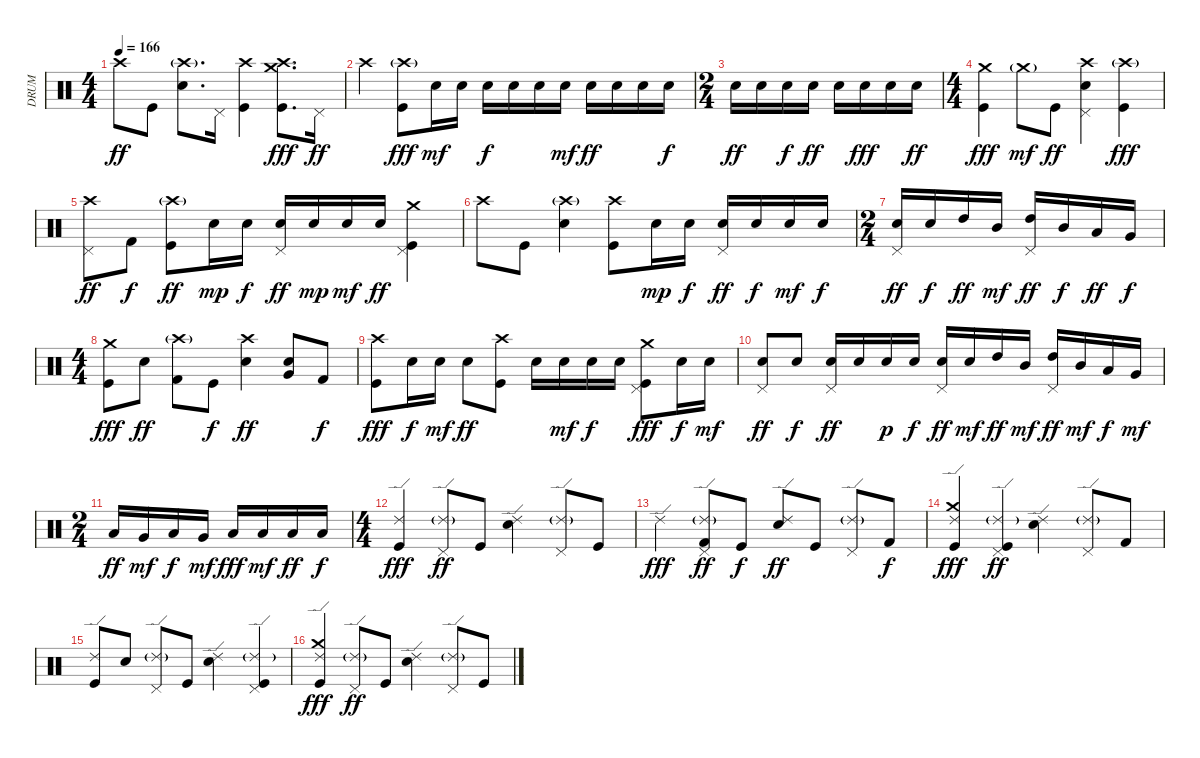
\track ("DRUM" "DRUM") {instrument percussion}
\staff {score}
\articulation defaults
\ts (4 4)
\tempo 166
\clef neutral
\ks c "Crash high (hit)".8{dy ff} "Kick (hit)".8
("Crash high (hit)"{g} "Electric Snare (hit)").8{d} "Pedal Hi-Hat (hit)".16 ("Crash high (hit)" "Kick (hit)").4 ("Crash high (hit)" "Crash medium (hit)" "Kick (hit)").8{d dy fff} "Pedal Hi-Hat (hit)".16{dy ff} |
"Crash high (hit)".4 ("Crash high (hit)"{g} "Kick (hit)").8{dy fff} "Snare (hit) 2".16{dy mf} "Electric Snare (hit)".16 "Snare (hit) 2".16{dy f} "Electric Snare (hit)".16 "Snare (hit) 2".16 "Electric Snare (hit)".16{dy mf} "Snare (hit) 2".16{dy ff} "Electric Snare (hit)".16 "Snare (hit) 2".16 "Electric Snare (hit)".16{dy f} |
\ts (2 4)
"Snare (hit) 2".16{dy ff} "Electric Snare (hit)".16 "Snare (hit) 2".16{dy f} "Electric Snare (hit)".16{dy ff} "Snare (hit) 2".16 "Electric Snare (hit)".16{dy fff} "Snare (hit) 2".16 "Electric Snare (hit)".16{dy ff} |
\ts (4 4)
("Crash medium (hit)" "Kick (hit)").4{dy fff} "Crash medium (hit)"{g}.8{dy mf} "Kick (hit)".8{dy ff} ("Crash high (hit)" "Pedal Hi-Hat (hit)" "Electric Snare (hit)").4 ("Crash high (hit)"{g} "Kick (hit)").4{dy fff} |
("Crash high (hit)" "Pedal Hi-Hat (hit)").8{dy ff} "Kick (hit) 2".8{dy f} ("Crash high (hit)"{g} "Kick (hit)").8{dy ff} "Snare (hit) 2".16{dy mp} "Electric Snare (hit)".16{dy f} ("Pedal Hi-Hat (hit)" "Snare (hit) 2").16{dy ff} "Electric Snare (hit)".16{dy mp} "Snare (hit) 2".16{dy mf} "Electric Snare (hit)".16{dy ff} ("Crash medium (hit)" "Pedal Hi-Hat (hit)" "Kick (hit)").4 |
"Crash high (hit)".8 "Kick (hit)".8 ("Crash high (hit)"{g} "Electric Snare (hit)").4 ("Crash high (hit)" "Kick (hit)").8 "Snare (hit) 2".16{dy mp} "Electric Snare (hit)".16{dy f} ("Pedal Hi-Hat (hit)" "Snare (hit) 2").16{dy ff} "Electric Snare (hit)".16{dy f} "Snare (hit) 2".16{dy mf} "Electric Snare (hit)".16{dy f} |
\ts (2 4)
("Pedal Hi-Hat (hit)" "Snare (hit) 2").16{dy ff} "Electric Snare (hit)".16{dy f} "High Tom (hit)".16{dy ff} "Mid Tom (hit)".16{dy mf} ("Pedal Hi-Hat (hit)" "High Tom (hit)").16{dy ff} "Mid Tom (hit)".16{dy f} "Low Tom (hit)".16{dy ff} "Very Low Tom (hit)".16{dy f} |
\ts (4 4)
("Crash medium (hit)" "Kick (hit)").8{dy fff} "Electric Snare (hit)".8{dy ff} ("Crash high (hit)"{g} "Kick (hit) 2").8 "Kick (hit)".8{dy f} ("Crash high (hit)" "Electric Snare (hit)").4{dy ff} ("Electric Snare (hit)" "Very Low Tom (hit)").8 "Kick (hit) 2".8{dy f} |
("Crash high (hit)" "Kick (hit)").8{dy fff} "Snare (hit) 2".16{dy f} "Electric Snare (hit)".16{dy mf} "Snare (hit) 2".8{dy ff} ("Crash high (hit)" "Kick (hit)").8 "Snare (hit) 2".16 "Electric Snare (hit)".16{dy mf} "Snare (hit) 2".16{dy f} "Electric Snare (hit)".16 ("Crash medium (hit)" "Pedal Hi-Hat (hit)" "Kick (hit)").8{dy fff} "Snare (hit) 2".16{dy f} "Electric Snare (hit)".16{dy mf} |
("Pedal Hi-Hat (hit)" "Snare (hit) 2").8{dy ff} "Electric Snare (hit)".8{dy f} ("Pedal Hi-Hat (hit)" "Snare (hit) 2").16{dy ff} "Electric Snare (hit)".16 "Snare (hit) 2".16{dy p} "Electric Snare (hit)".16{dy f} ("Pedal Hi-Hat (hit)" "Snare (hit) 2").16{dy ff} "Electric Snare (hit)".16{dy mf} "High Tom (hit)".16{dy ff} "Mid Tom (hit)".16{dy mf} ("Pedal Hi-Hat (hit)" "High Tom (hit)").16{dy ff} "Mid Tom (hit)".16{dy mf} "Low Tom (hit)".16{dy f} "Very Low Tom (hit)".16{dy mf} |
\ts (2 4)
"Low Tom (hit)".16{dy ff} "Very Low Tom (hit)".16{dy mf} "Low Tom (hit)".16{dy f} "Very Low Tom (hit)".16{dy mf} "Low Floor Tom (hit)".16{dy fff} "Low Floor Tom (hit)".16{dy mf} "Low Floor Tom (hit)".16{dy ff} "Low Floor Tom (hit)".16{dy f} |
\ts (4 4)
("Ride (edge) 2" "Kick (hit)").4{dy fff} ("Ride (edge) 2"{g} "Pedal Hi-Hat (hit)").8{dy ff} "Kick (hit)".8 ("Ride (edge) 2" "Electric Snare (hit)").4 ("Ride (edge) 2"{g} "Pedal Hi-Hat (hit)").8 "Kick (hit)".8 |
"Ride (edge) 2".4{dy fff} ("Ride (edge) 2"{g} "Pedal Hi-Hat (hit)" "Kick (hit) 2").8{dy ff} "Kick (hit)".8{dy f} ("Ride (edge) 2" "Electric Snare (hit)").8{dy ff} "Kick (hit)".8 ("Ride (edge) 2"{g} "Pedal Hi-Hat (hit)").8 "Kick (hit) 2".8{dy f} |
("Ride (edge) 2" "Crash medium (hit)" "Kick (hit)").4{dy fff} ("Ride (edge) 2"{g} "Pedal Hi-Hat (hit)" "Kick (hit)").4{dy ff} ("Ride (edge) 2" "Electric Snare (hit)").4 ("Ride (edge) 2"{g} "Pedal Hi-Hat (hit)").8 "Kick (hit) 2".8 |
("Ride (edge) 2" "Kick (hit)").8 "Electric Snare (hit)".8 ("Ride (edge) 2"{g} "Pedal Hi-Hat (hit)").8 "Kick (hit)".8 ("Ride (edge) 2" "Electric Snare (hit)").4 ("Ride (edge) 2"{g} "Pedal Hi-Hat (hit)" "Kick (hit)").4 |
("Ride (edge) 2" "Crash medium (hit)" "Kick (hit)").4{dy fff} ("Ride (edge) 2"{g} "Pedal Hi-Hat (hit)").8{dy ff} "Kick (hit)".8 ("Ride (edge) 2" "Electric Snare (hit)").4 ("Ride (edge) 2"{g} "Pedal Hi-Hat (hit)").8 "Kick (hit)".8
